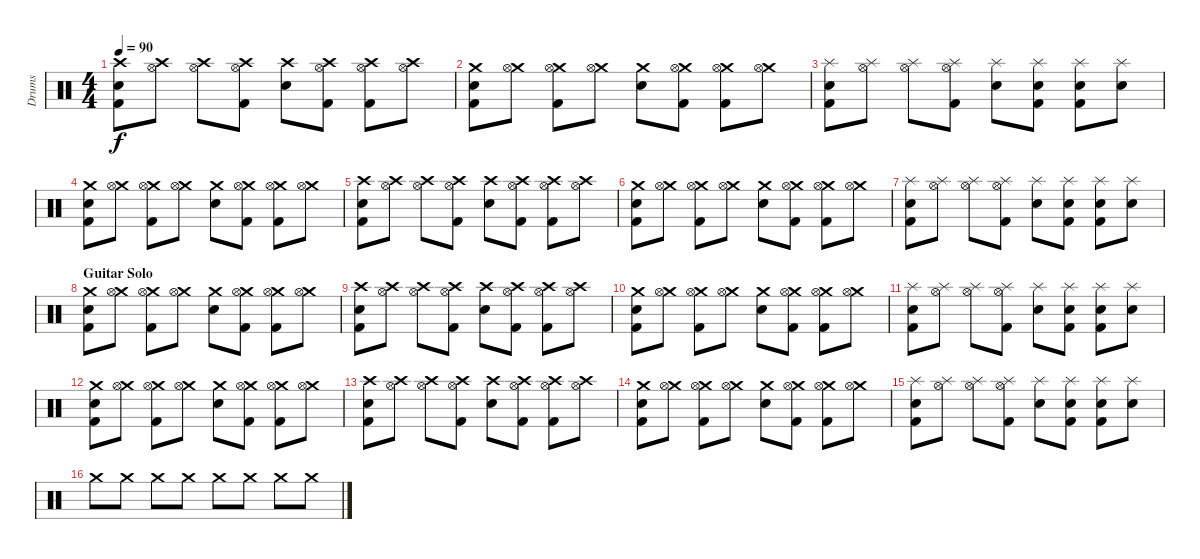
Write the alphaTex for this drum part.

\track ("Drums" "Drums") {instrument percussion}
\staff {score}
\articulation defaults
\ts (4 4)
\tempo 90
\clef neutral
\ks c
("Crash high (hit)" "Electric Snare (hit)" "Kick (hit) 2").8{dy f} ("Crash high (hit)" "Hi-Hat (open)").8 ("Crash high (hit)" "Hi-Hat (open)").8 ("Crash high (hit)" "Hi-Hat (open)" "Kick (hit) 2").8 ("Crash high (hit)" "Electric Snare (hit)").8 ("Crash high (hit)" "Hi-Hat (open)" "Kick (hit) 2").8 ("Crash high (hit)" "Hi-Hat (open)" "Kick (hit) 2").8 ("Crash high (hit)" "Hi-Hat (open)").8 |
("Crash medium (hit)" "Electric Snare (hit)" "Kick (hit) 2").8 ("Crash medium (hit)" "Hi-Hat (open)").8 ("Crash medium (hit)" "Hi-Hat (open)" "Kick (hit) 2").8 ("Crash medium (hit)" "Hi-Hat (open)").8 ("Crash medium (hit)" "Electric Snare (hit)").8 ("Crash medium (hit)" "Hi-Hat (open)" "Kick (hit) 2").8 ("Crash medium (hit)" "Hi-Hat (open)" "Kick (hit) 2").8 ("Crash medium (hit)" "Hi-Hat (open)").8 |
("Splash (hit)" "Electric Snare (hit)" "Kick (hit) 2").8 ("Splash (hit)" "Hi-Hat (open)").8 ("Splash (hit)" "Hi-Hat (open)").8 ("Splash (hit)" "Hi-Hat (open)" "Kick (hit) 2").8 ("Splash (hit)" "Electric Snare (hit)").8 ("Splash (hit)" "Electric Snare (hit)" "Kick (hit) 2").8 ("Splash (hit)" "Electric Snare (hit)" "Kick (hit) 2").8 ("Splash (hit)" "Electric Snare (hit)").8 |
("Crash medium (hit)" "Electric Snare (hit)" "Kick (hit) 2").8 ("Crash medium (hit)" "Hi-Hat (open)").8 ("Crash medium (hit)" "Hi-Hat (open)" "Kick (hit) 2").8 ("Crash medium (hit)" "Hi-Hat (open)").8 ("Crash medium (hit)" "Electric Snare (hit)").8 ("Crash medium (hit)" "Hi-Hat (open)" "Kick (hit) 2").8 ("Crash medium (hit)" "Hi-Hat (open)" "Kick (hit) 2").8 ("Crash medium (hit)" "Hi-Hat (open)").8 |
("Crash high (hit)" "Electric Snare (hit)" "Kick (hit) 2").8 ("Crash high (hit)" "Hi-Hat (open)").8 ("Crash high (hit)" "Hi-Hat (open)").8 ("Crash high (hit)" "Hi-Hat (open)" "Kick (hit) 2").8 ("Crash high (hit)" "Electric Snare (hit)").8 ("Crash high (hit)" "Hi-Hat (open)" "Kick (hit) 2").8 ("Crash high (hit)" "Hi-Hat (open)" "Kick (hit) 2").8 ("Crash high (hit)" "Hi-Hat (open)").8 |
("Crash medium (hit)" "Electric Snare (hit)" "Kick (hit) 2").8 ("Crash medium (hit)" "Hi-Hat (open)").8 ("Crash medium (hit)" "Hi-Hat (open)" "Kick (hit) 2").8 ("Crash medium (hit)" "Hi-Hat (open)").8 ("Crash medium (hit)" "Electric Snare (hit)").8 ("Crash medium (hit)" "Hi-Hat (open)" "Kick (hit) 2").8 ("Crash medium (hit)" "Hi-Hat (open)" "Kick (hit) 2").8 ("Crash medium (hit)" "Hi-Hat (open)").8 |
("Splash (hit)" "Electric Snare (hit)" "Kick (hit) 2").8 ("Splash (hit)" "Hi-Hat (open)").8 ("Splash (hit)" "Hi-Hat (open)").8 ("Splash (hit)" "Hi-Hat (open)" "Kick (hit) 2").8 ("Splash (hit)" "Electric Snare (hit)").8 ("Splash (hit)" "Electric Snare (hit)" "Kick (hit) 2").8 ("Splash (hit)" "Electric Snare (hit)" "Kick (hit) 2").8 ("Splash (hit)" "Electric Snare (hit)").8 |
\section ("" "Guitar Solo")
("Crash medium (hit)" "Electric Snare (hit)" "Kick (hit) 2").8 ("Crash medium (hit)" "Hi-Hat (open)").8 ("Crash medium (hit)" "Hi-Hat (open)" "Kick (hit) 2").8 ("Crash medium (hit)" "Hi-Hat (open)").8 ("Crash medium (hit)" "Electric Snare (hit)").8 ("Crash medium (hit)" "Hi-Hat (open)" "Kick (hit) 2").8 ("Crash medium (hit)" "Hi-Hat (open)" "Kick (hit) 2").8 ("Crash medium (hit)" "Hi-Hat (open)").8 |
("Crash high (hit)" "Electric Snare (hit)" "Kick (hit) 2").8 ("Crash high (hit)" "Hi-Hat (open)").8 ("Crash high (hit)" "Hi-Hat (open)").8 ("Crash high (hit)" "Hi-Hat (open)" "Kick (hit) 2").8 ("Crash high (hit)" "Electric Snare (hit)").8 ("Crash high (hit)" "Hi-Hat (open)" "Kick (hit) 2").8 ("Crash high (hit)" "Hi-Hat (open)" "Kick (hit) 2").8 ("Crash high (hit)" "Hi-Hat (open)").8 |
("Crash medium (hit)" "Electric Snare (hit)" "Kick (hit) 2").8 ("Crash medium (hit)" "Hi-Hat (open)").8 ("Crash medium (hit)" "Hi-Hat (open)" "Kick (hit) 2").8 ("Crash medium (hit)" "Hi-Hat (open)").8 ("Crash medium (hit)" "Electric Snare (hit)").8 ("Crash medium (hit)" "Hi-Hat (open)" "Kick (hit) 2").8 ("Crash medium (hit)" "Hi-Hat (open)" "Kick (hit) 2").8 ("Crash medium (hit)" "Hi-Hat (open)").8 |
("Splash (hit)" "Electric Snare (hit)" "Kick (hit) 2").8 ("Splash (hit)" "Hi-Hat (open)").8 ("Splash (hit)" "Hi-Hat (open)").8 ("Splash (hit)" "Hi-Hat (open)" "Kick (hit) 2").8 ("Splash (hit)" "Electric Snare (hit)").8 ("Splash (hit)" "Electric Snare (hit)" "Kick (hit) 2").8 ("Splash (hit)" "Electric Snare (hit)" "Kick (hit) 2").8 ("Splash (hit)" "Electric Snare (hit)").8 |
("Crash medium (hit)" "Electric Snare (hit)" "Kick (hit) 2").8 ("Crash medium (hit)" "Hi-Hat (open)").8 ("Crash medium (hit)" "Hi-Hat (open)" "Kick (hit) 2").8 ("Crash medium (hit)" "Hi-Hat (open)").8 ("Crash medium (hit)" "Electric Snare (hit)").8 ("Crash medium (hit)" "Hi-Hat (open)" "Kick (hit) 2").8 ("Crash medium (hit)" "Hi-Hat (open)" "Kick (hit) 2").8 ("Crash medium (hit)" "Hi-Hat (open)").8 |
("Crash high (hit)" "Electric Snare (hit)" "Kick (hit) 2").8 ("Crash high (hit)" "Hi-Hat (open)").8 ("Crash high (hit)" "Hi-Hat (open)").8 ("Crash high (hit)" "Hi-Hat (open)" "Kick (hit) 2").8 ("Crash high (hit)" "Electric Snare (hit)").8 ("Crash high (hit)" "Hi-Hat (open)" "Kick (hit) 2").8 ("Crash high (hit)" "Hi-Hat (open)" "Kick (hit) 2").8 ("Crash high (hit)" "Hi-Hat (open)").8 |
("Crash medium (hit)" "Electric Snare (hit)" "Kick (hit) 2").8 ("Crash medium (hit)" "Hi-Hat (open)").8 ("Crash medium (hit)" "Hi-Hat (open)" "Kick (hit) 2").8 ("Crash medium (hit)" "Hi-Hat (open)").8 ("Crash medium (hit)" "Electric Snare (hit)").8 ("Crash medium (hit)" "Hi-Hat (open)" "Kick (hit) 2").8 ("Crash medium (hit)" "Hi-Hat (open)" "Kick (hit) 2").8 ("Crash medium (hit)" "Hi-Hat (open)").8 |
("Splash (hit)" "Electric Snare (hit)" "Kick (hit) 2").8 ("Splash (hit)" "Hi-Hat (open)").8 ("Splash (hit)" "Hi-Hat (open)").8 ("Splash (hit)" "Hi-Hat (open)" "Kick (hit) 2").8 ("Splash (hit)" "Electric Snare (hit)").8 ("Splash (hit)" "Electric Snare (hit)" "Kick (hit) 2").8 ("Splash (hit)" "Electric Snare (hit)" "Kick (hit) 2").8 ("Splash (hit)" "Electric Snare (hit)").8 |
"Crash medium (hit)".8 "Crash medium (hit)".8 "Crash medium (hit)".8 "Crash medium (hit)".8 "Crash medium (hit)".8 "Crash medium (hit)".8 "Crash medium (hit)".8 "Crash medium (hit)".8
